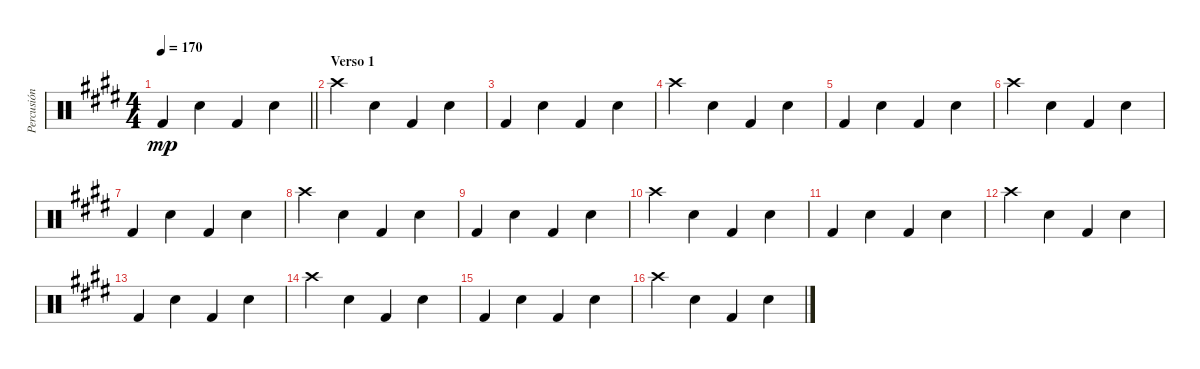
\track ("Percusión" "Percusión") {instrument percussion}
\staff {score}
\articulation defaults
\ts (4 4)
\tempo 170
\clef neutral
\barLineRight lightlight
\ks e "Kick (hit) 2".4{dy mp} "Snare (hit) 2".4 "Kick (hit) 2".4 "Snare (hit) 2".4
|
\section ("" "Verso 1")
"Crash high (hit)".4 "Snare (hit) 2".4 "Kick (hit) 2".4 "Snare (hit) 2".4 |
"Kick (hit) 2".4 "Snare (hit) 2".4 "Kick (hit) 2".4 "Snare (hit) 2".4 |
"Crash high (hit)".4 "Snare (hit) 2".4 "Kick (hit) 2".4 "Snare (hit) 2".4 |
"Kick (hit) 2".4 "Snare (hit) 2".4 "Kick (hit) 2".4 "Snare (hit) 2".4 |
"Crash high (hit)".4 "Snare (hit) 2".4 "Kick (hit) 2".4 "Snare (hit) 2".4 |
"Kick (hit) 2".4 "Snare (hit) 2".4 "Kick (hit) 2".4 "Snare (hit) 2".4 |
"Crash high (hit)".4 "Snare (hit) 2".4 "Kick (hit) 2".4 "Snare (hit) 2".4 |
"Kick (hit) 2".4 "Snare (hit) 2".4 "Kick (hit) 2".4 "Snare (hit) 2".4 |
"Crash high (hit)".4 "Snare (hit) 2".4 "Kick (hit) 2".4 "Snare (hit) 2".4 |
"Kick (hit) 2".4 "Snare (hit) 2".4 "Kick (hit) 2".4 "Snare (hit) 2".4 |
"Crash high (hit)".4 "Snare (hit) 2".4 "Kick (hit) 2".4 "Snare (hit) 2".4 |
"Kick (hit) 2".4 "Snare (hit) 2".4 "Kick (hit) 2".4 "Snare (hit) 2".4 |
"Crash high (hit)".4 "Snare (hit) 2".4 "Kick (hit) 2".4 "Snare (hit) 2".4 |
"Kick (hit) 2".4 "Snare (hit) 2".4 "Kick (hit) 2".4 "Snare (hit) 2".4 |
"Crash high (hit)".4 "Snare (hit) 2".4 "Kick (hit) 2".4 "Snare (hit) 2".4
